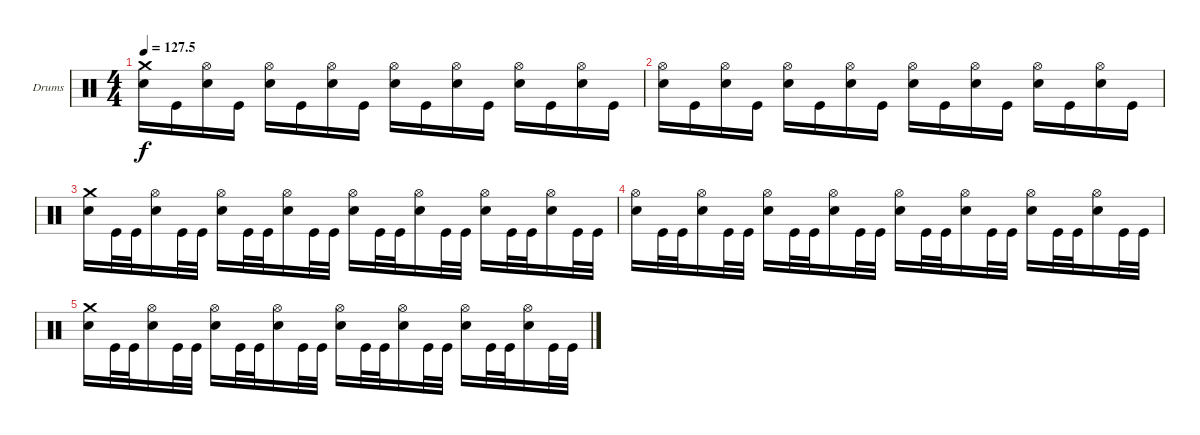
\defaultSystemsLayout 4
\bracketExtendMode groupsimilarinstruments
\firstSystemTrackNameOrientation horizontal
\otherSystemsTrackNameOrientation horizontal
\track ("Drumkit" "Drums") {instrument percussion}
\staff {score}
\articulation defaults
\ts (4 4)
\tempo
127.5
\accidentals auto
\clef neutral
\ottava regular
\simile none
\ks c
("Crash medium (hit)" "Snare (hit) 2").16{dy f} "Kick (hit)".16 ("Hi-Hat (open)" "Snare (hit) 2").16 "Kick (hit)".16 ("Hi-Hat (open)" "Snare (hit) 2").16 "Kick (hit)".16 ("Hi-Hat (open)" "Snare (hit) 2").16 "Kick (hit)".16 ("Hi-Hat (open)" "Snare (hit) 2").16 "Kick (hit)".16 ("Hi-Hat (open)" "Snare (hit) 2").16 "Kick (hit)".16 ("Hi-Hat (open)" "Snare (hit) 2").16 "Kick (hit)".16 ("Hi-Hat (open)" "Snare (hit) 2").16 "Kick (hit)".16 |
("Hi-Hat (open)" "Snare (hit) 2").16 "Kick (hit)".16 ("Hi-Hat (open)" "Snare (hit) 2").16 "Kick (hit)".16 ("Hi-Hat (open)" "Snare (hit) 2").16 "Kick (hit)".16 ("Hi-Hat (open)" "Snare (hit) 2").16 "Kick (hit)".16 ("Hi-Hat (open)" "Snare (hit) 2").16 "Kick (hit)".16 ("Hi-Hat (open)" "Snare (hit) 2").16 "Kick (hit)".16 ("Hi-Hat (open)" "Snare (hit) 2").16 "Kick (hit)".16 ("Hi-Hat (open)" "Snare (hit) 2").16 "Kick (hit)".16 |
("Crash medium (hit)" "Snare (hit) 2").16 "Kick (hit)".32 "Kick (hit)".32 ("Hi-Hat (open)" "Snare (hit) 2").16 "Kick (hit)".32 "Kick (hit)".32 ("Hi-Hat (open)" "Snare (hit) 2").16 "Kick (hit)".32 "Kick (hit)".32 ("Hi-Hat (open)" "Snare (hit) 2").16 "Kick (hit)".32 "Kick (hit)".32 ("Hi-Hat (open)" "Snare (hit) 2").16 "Kick (hit)".32 "Kick (hit)".32 ("Hi-Hat (open)" "Snare (hit) 2").16 "Kick (hit)".32 "Kick (hit)".32 ("Hi-Hat (open)" "Snare (hit) 2").16 "Kick (hit)".32 "Kick (hit)".32 ("Hi-Hat (open)" "Snare (hit) 2").16 "Kick (hit)".32 "Kick (hit)".32 |
("Hi-Hat (open)" "Snare (hit) 2").16 "Kick (hit)".32 "Kick (hit)".32 ("Hi-Hat (open)" "Snare (hit) 2").16 "Kick (hit)".32 "Kick (hit)".32 ("Hi-Hat (open)" "Snare (hit) 2").16 "Kick (hit)".32 "Kick (hit)".32 ("Hi-Hat (open)" "Snare (hit) 2").16 "Kick (hit)".32 "Kick (hit)".32 ("Hi-Hat (open)" "Snare (hit) 2").16 "Kick (hit)".32 "Kick (hit)".32 ("Hi-Hat (open)" "Snare (hit) 2").16 "Kick (hit)".32 "Kick (hit)".32 ("Hi-Hat (open)" "Snare (hit) 2").16 "Kick (hit)".32 "Kick (hit)".32 ("Hi-Hat (open)" "Snare (hit) 2").16 "Kick (hit)".32 "Kick (hit)".32 |
("Crash medium (hit)" "Snare (hit) 2").16 "Kick (hit)".32 "Kick (hit)".32 ("Hi-Hat (open)" "Snare (hit) 2").16 "Kick (hit)".32 "Kick (hit)".32 ("Hi-Hat (open)" "Snare (hit) 2").16 "Kick (hit)".32 "Kick (hit)".32 ("Hi-Hat (open)" "Snare (hit) 2").16 "Kick (hit)".32 "Kick (hit)".32 ("Hi-Hat (open)" "Snare (hit) 2").16 "Kick (hit)".32 "Kick (hit)".32 ("Hi-Hat (open)" "Snare (hit) 2").16 "Kick (hit)".32 "Kick (hit)".32 ("Hi-Hat (open)" "Snare (hit) 2").16 "Kick (hit)".32 "Kick (hit)".32 ("Hi-Hat (open)" "Snare (hit) 2").16 "Kick (hit)".32 "Kick (hit)".32
